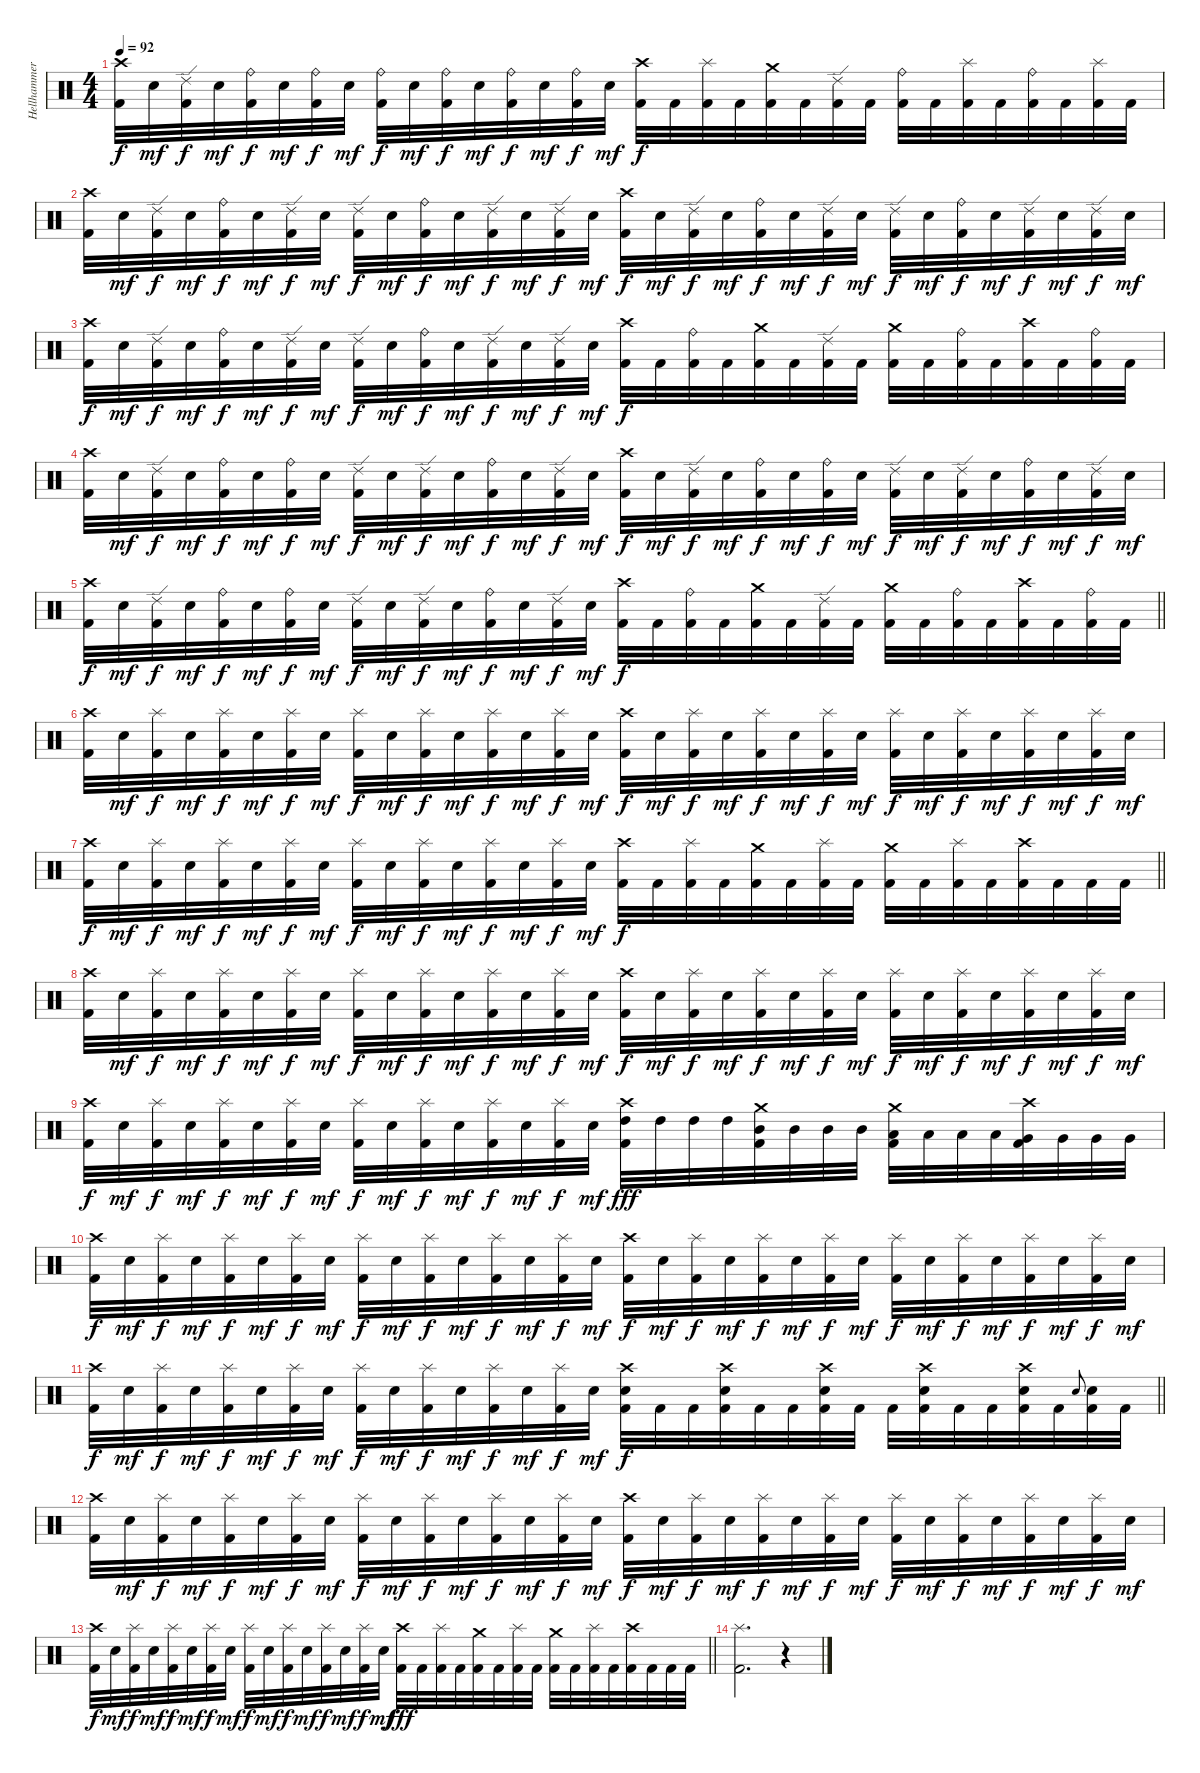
\track ("Hellhammer" "Hellhammer") {instrument percussion}
\staff {score}
\articulation defaults
\ts (4 4)
\tempo 92
\clef neutral
\ks c
("Crash high (hit)" "Kick (hit) 2").32{dy f} "Electric Snare (hit)".32{dy mf} ("Ride (edge) 2" "Kick (hit) 2").32{dy f} "Electric Snare (hit)".32{dy mf} ("Ride (bell)" "Kick (hit) 2").32{dy f} "Electric Snare (hit)".32{dy mf} ("Ride (bell)" "Kick (hit) 2").32{dy f} "Electric Snare (hit)".32{dy mf} ("Ride (bell)" "Kick (hit) 2").32{dy f} "Electric Snare (hit)".32{dy mf} ("Ride (bell)" "Kick (hit) 2").32{dy f} "Electric Snare (hit)".32{dy mf} ("Ride (bell)" "Kick (hit) 2").32{dy f} "Electric Snare (hit)".32{dy mf} ("Ride (bell)" "Kick (hit) 2").32{dy f} "Electric Snare (hit)".32{dy mf} ("Crash high (hit)" "Kick (hit) 2").32{dy f} "Kick (hit) 2".32 ("Splash (hit)" "Kick (hit) 2").32 "Kick (hit) 2".32 ("Crash medium (hit)" "Kick (hit) 2").32 "Kick (hit) 2".32 ("Ride (edge) 2" "Kick (hit) 2").32 "Kick (hit) 2".32 ("Ride (bell)" "Kick (hit) 2").32 "Kick (hit) 2".32 ("Splash (hit)" "Kick (hit) 2").32 "Kick (hit) 2".32 ("Ride (bell)" "Kick (hit) 2").32 "Kick (hit) 2".32 ("Splash (hit)" "Kick (hit) 2").32 "Kick (hit) 2".32 |
("Crash high (hit)" "Kick (hit) 2").32 "Electric Snare (hit)".32{dy mf} ("Ride (edge) 2" "Kick (hit) 2").32{dy f} "Electric Snare (hit)".32{dy mf} ("Ride (bell)" "Kick (hit) 2").32{dy f} "Electric Snare (hit)".32{dy mf} ("Ride (edge) 2" "Kick (hit) 2").32{dy f} "Electric Snare (hit)".32{dy mf} ("Ride (edge) 2" "Kick (hit) 2").32{dy f} "Electric Snare (hit)".32{dy mf} ("Ride (bell)" "Kick (hit) 2").32{dy f} "Electric Snare (hit)".32{dy mf} ("Ride (edge) 2" "Kick (hit) 2").32{dy f} "Electric Snare (hit)".32{dy mf} ("Ride (edge) 2" "Kick (hit) 2").32{dy f} "Electric Snare (hit)".32{dy mf} ("Crash high (hit)" "Kick (hit) 2").32{dy f} "Electric Snare (hit)".32{dy mf} ("Ride (edge) 2" "Kick (hit) 2").32{dy f} "Electric Snare (hit)".32{dy mf} ("Ride (bell)" "Kick (hit) 2").32{dy f} "Electric Snare (hit)".32{dy mf} ("Ride (edge) 2" "Kick (hit) 2").32{dy f} "Electric Snare (hit)".32{dy mf} ("Ride (edge) 2" "Kick (hit) 2").32{dy f} "Electric Snare (hit)".32{dy mf} ("Ride (bell)" "Kick (hit) 2").32{dy f} "Electric Snare (hit)".32{dy mf} ("Ride (edge) 2" "Kick (hit) 2").32{dy f} "Electric Snare (hit)".32{dy mf} ("Ride (edge) 2" "Kick (hit) 2").32{dy f} "Electric Snare (hit)".32{dy mf} |
("Crash high (hit)" "Kick (hit) 2").32{dy f} "Electric Snare (hit)".32{dy mf} ("Ride (edge) 2" "Kick (hit) 2").32{dy f} "Electric Snare (hit)".32{dy mf} ("Ride (bell)" "Kick (hit) 2").32{dy f} "Electric Snare (hit)".32{dy mf} ("Ride (edge) 2" "Kick (hit) 2").32{dy f} "Electric Snare (hit)".32{dy mf} ("Ride (edge) 2" "Kick (hit) 2").32{dy f} "Electric Snare (hit)".32{dy mf} ("Ride (bell)" "Kick (hit) 2").32{dy f} "Electric Snare (hit)".32{dy mf} ("Ride (edge) 2" "Kick (hit) 2").32{dy f} "Electric Snare (hit)".32{dy mf} ("Ride (edge) 2" "Kick (hit) 2").32{dy f} "Electric Snare (hit)".32{dy mf} ("Crash high (hit)" "Kick (hit) 2").32{dy f} "Kick (hit) 2".32 ("Ride (bell)" "Kick (hit) 2").32 "Kick (hit) 2".32 ("Crash medium (hit)" "Kick (hit) 2").32 "Kick (hit) 2".32 ("Ride (edge) 2" "Kick (hit) 2").32 "Kick (hit) 2".32 ("Crash medium (hit)" "Kick (hit) 2").32 "Kick (hit) 2".32 ("Ride (bell)" "Kick (hit) 2").32 "Kick (hit) 2".32 ("Crash high (hit)" "Kick (hit) 2").32 "Kick (hit) 2".32 ("Ride (bell)" "Kick (hit) 2").32 "Kick (hit) 2".32 |
("Crash high (hit)" "Kick (hit) 2").32 "Electric Snare (hit)".32{dy mf} ("Ride (edge) 2" "Kick (hit) 2").32{dy f} "Electric Snare (hit)".32{dy mf} ("Ride (bell)" "Kick (hit) 2").32{dy f} "Electric Snare (hit)".32{dy mf} ("Ride (bell)" "Kick (hit) 2").32{dy f} "Electric Snare (hit)".32{dy mf} ("Ride (edge) 2" "Kick (hit) 2").32{dy f} "Electric Snare (hit)".32{dy mf} ("Ride (edge) 2" "Kick (hit) 2").32{dy f} "Electric Snare (hit)".32{dy mf} ("Ride (bell)" "Kick (hit) 2").32{dy f} "Electric Snare (hit)".32{dy mf} ("Ride (edge) 2" "Kick (hit) 2").32{dy f} "Electric Snare (hit)".32{dy mf} ("Crash high (hit)" "Kick (hit) 2").32{dy f} "Electric Snare (hit)".32{dy mf} ("Ride (edge) 2" "Kick (hit) 2").32{dy f} "Electric Snare (hit)".32{dy mf} ("Ride (bell)" "Kick (hit) 2").32{dy f} "Electric Snare (hit)".32{dy mf} ("Ride (bell)" "Kick (hit) 2").32{dy f} "Electric Snare (hit)".32{dy mf} ("Ride (edge) 2" "Kick (hit) 2").32{dy f} "Electric Snare (hit)".32{dy mf} ("Ride (edge) 2" "Kick (hit) 2").32{dy f} "Electric Snare (hit)".32{dy mf} ("Ride (bell)" "Kick (hit) 2").32{dy f} "Electric Snare (hit)".32{dy mf} ("Ride (edge) 2" "Kick (hit) 2").32{dy f} "Electric Snare (hit)".32{dy mf} |
\barLineRight lightlight
("Crash high (hit)" "Kick (hit) 2").32{dy f} "Electric Snare (hit)".32{dy mf} ("Ride (edge) 2" "Kick (hit) 2").32{dy f} "Electric Snare (hit)".32{dy mf} ("Ride (bell)" "Kick (hit) 2").32{dy f} "Electric Snare (hit)".32{dy mf} ("Ride (bell)" "Kick (hit) 2").32{dy f} "Electric Snare (hit)".32{dy mf} ("Ride (edge) 2" "Kick (hit) 2").32{dy f} "Electric Snare (hit)".32{dy mf} ("Ride (edge) 2" "Kick (hit) 2").32{dy f} "Electric Snare (hit)".32{dy mf} ("Ride (bell)" "Kick (hit) 2").32{dy f} "Electric Snare (hit)".32{dy mf} ("Ride (edge) 2" "Kick (hit) 2").32{dy f} "Electric Snare (hit)".32{dy mf} ("Crash high (hit)" "Kick (hit) 2").32{dy f} "Kick (hit) 2".32 ("Ride (bell)" "Kick (hit) 2").32 "Kick (hit) 2".32 ("Crash medium (hit)" "Kick (hit) 2").32 "Kick (hit) 2".32 ("Ride (edge) 2" "Kick (hit) 2").32 "Kick (hit) 2".32 ("Crash medium (hit)" "Kick (hit) 2").32 "Kick (hit) 2".32 ("Ride (bell)" "Kick (hit) 2").32 "Kick (hit) 2".32 ("Crash high (hit)" "Kick (hit) 2").32 "Kick (hit) 2".32 ("Ride (bell)" "Kick (hit) 2").32 "Kick (hit) 2".32 |
("Crash high (hit)" "Kick (hit) 2").32 "Electric Snare (hit)".32{dy mf} ("Splash (hit)" "Kick (hit) 2").32{dy f} "Electric Snare (hit)".32{dy mf} ("Splash (hit)" "Kick (hit) 2").32{dy f} "Electric Snare (hit)".32{dy mf} ("Splash (hit)" "Kick (hit) 2").32{dy f} "Electric Snare (hit)".32{dy mf} ("Splash (hit)" "Kick (hit) 2").32{dy f} "Electric Snare (hit)".32{dy mf} ("Splash (hit)" "Kick (hit) 2").32{dy f} "Electric Snare (hit)".32{dy mf} ("Splash (hit)" "Kick (hit) 2").32{dy f} "Electric Snare (hit)".32{dy mf} ("Splash (hit)" "Kick (hit) 2").32{dy f} "Electric Snare (hit)".32{dy mf} ("Crash high (hit)" "Kick (hit) 2").32{dy f} "Electric Snare (hit)".32{dy mf} ("Splash (hit)" "Kick (hit) 2").32{dy f} "Electric Snare (hit)".32{dy mf} ("Splash (hit)" "Kick (hit) 2").32{dy f} "Electric Snare (hit)".32{dy mf} ("Splash (hit)" "Kick (hit) 2").32{dy f} "Electric Snare (hit)".32{dy mf} ("Splash (hit)" "Kick (hit) 2").32{dy f} "Electric Snare (hit)".32{dy mf} ("Splash (hit)" "Kick (hit) 2").32{dy f} "Electric Snare (hit)".32{dy mf} ("Splash (hit)" "Kick (hit) 2").32{dy f} "Electric Snare (hit)".32{dy mf} ("Splash (hit)" "Kick (hit) 2").32{dy f} "Electric Snare (hit)".32{dy mf} |
\barLineRight lightlight
("Crash high (hit)" "Kick (hit) 2").32{dy f} "Electric Snare (hit)".32{dy mf} ("Splash (hit)" "Kick (hit) 2").32{dy f} "Electric Snare (hit)".32{dy mf} ("Splash (hit)" "Kick (hit) 2").32{dy f} "Electric Snare (hit)".32{dy mf} ("Splash (hit)" "Kick (hit) 2").32{dy f} "Electric Snare (hit)".32{dy mf} ("Splash (hit)" "Kick (hit) 2").32{dy f} "Electric Snare (hit)".32{dy mf} ("Splash (hit)" "Kick (hit) 2").32{dy f} "Electric Snare (hit)".32{dy mf} ("Splash (hit)" "Kick (hit) 2").32{dy f} "Electric Snare (hit)".32{dy mf} ("Splash (hit)" "Kick (hit) 2").32{dy f} "Electric Snare (hit)".32{dy mf} ("Crash high (hit)" "Kick (hit) 2").32{dy f} "Kick (hit) 2".32 ("Splash (hit)" "Kick (hit) 2").32 "Kick (hit) 2".32 ("Crash medium (hit)" "Kick (hit) 2").32 "Kick (hit) 2".32 ("Splash (hit)" "Kick (hit) 2").32 "Kick (hit) 2".32 ("Crash medium (hit)" "Kick (hit) 2").32 "Kick (hit) 2".32 ("Splash (hit)" "Kick (hit) 2").32 "Kick (hit) 2".32 ("Crash high (hit)" "Kick (hit) 2").32 "Kick (hit) 2".32 "Kick (hit) 2".32 "Kick (hit) 2".32 |
("Crash high (hit)" "Kick (hit) 2").32 "Electric Snare (hit)".32{dy mf} ("Splash (hit)" "Kick (hit) 2").32{dy f} "Electric Snare (hit)".32{dy mf} ("Splash (hit)" "Kick (hit) 2").32{dy f} "Electric Snare (hit)".32{dy mf} ("Splash (hit)" "Kick (hit) 2").32{dy f} "Electric Snare (hit)".32{dy mf} ("Splash (hit)" "Kick (hit) 2").32{dy f} "Electric Snare (hit)".32{dy mf} ("Splash (hit)" "Kick (hit) 2").32{dy f} "Electric Snare (hit)".32{dy mf} ("Splash (hit)" "Kick (hit) 2").32{dy f} "Electric Snare (hit)".32{dy mf} ("Splash (hit)" "Kick (hit) 2").32{dy f} "Electric Snare (hit)".32{dy mf} ("Crash high (hit)" "Kick (hit) 2").32{dy f} "Electric Snare (hit)".32{dy mf} ("Splash (hit)" "Kick (hit) 2").32{dy f} "Electric Snare (hit)".32{dy mf} ("Splash (hit)" "Kick (hit) 2").32{dy f} "Electric Snare (hit)".32{dy mf} ("Splash (hit)" "Kick (hit) 2").32{dy f} "Electric Snare (hit)".32{dy mf} ("Splash (hit)" "Kick (hit) 2").32{dy f} "Electric Snare (hit)".32{dy mf} ("Splash (hit)" "Kick (hit) 2").32{dy f} "Electric Snare (hit)".32{dy mf} ("Splash (hit)" "Kick (hit) 2").32{dy f} "Electric Snare (hit)".32{dy mf} ("Splash (hit)" "Kick (hit) 2").32{dy f} "Electric Snare (hit)".32{dy mf} |
("Crash high (hit)" "Kick (hit) 2").32{dy f} "Electric Snare (hit)".32{dy mf} ("Splash (hit)" "Kick (hit) 2").32{dy f} "Electric Snare (hit)".32{dy mf} ("Splash (hit)" "Kick (hit) 2").32{dy f} "Electric Snare (hit)".32{dy mf} ("Splash (hit)" "Kick (hit) 2").32{dy f} "Electric Snare (hit)".32{dy mf} ("Splash (hit)" "Kick (hit) 2").32{dy f} "Electric Snare (hit)".32{dy mf} ("Splash (hit)" "Kick (hit) 2").32{dy f} "Electric Snare (hit)".32{dy mf} ("Splash (hit)" "Kick (hit) 2").32{dy f} "Electric Snare (hit)".32{dy mf} ("Splash (hit)" "Kick (hit) 2").32{dy f} "Electric Snare (hit)".32{dy mf} ("Crash high (hit)" "High Tom (hit)" "Kick (hit) 2").32{dy fff} "High Tom (hit)".32 "High Tom (hit)".32 "High Tom (hit)".32 ("Crash medium (hit)" "Mid Tom (hit)" "Kick (hit) 2").32 "Mid Tom (hit)".32 "Mid Tom (hit)".32 "Mid Tom (hit)".32 ("Crash medium (hit)" "Low Tom (hit)" "Kick (hit) 2").32 "Low Tom (hit)".32 "Low Tom (hit)".32 "Low Tom (hit)".32 ("Crash high (hit)" "Very Low Tom (hit)" "Kick (hit) 2").32 "Very Low Tom (hit)".32 "Very Low Tom (hit)".32 "Very Low Tom (hit)".32 |
("Crash high (hit)" "Kick (hit) 2").32{dy f} "Electric Snare (hit)".32{dy mf} ("Splash (hit)" "Kick (hit) 2").32{dy f} "Electric Snare (hit)".32{dy mf} ("Splash (hit)" "Kick (hit) 2").32{dy f} "Electric Snare (hit)".32{dy mf} ("Splash (hit)" "Kick (hit) 2").32{dy f} "Electric Snare (hit)".32{dy mf} ("Splash (hit)" "Kick (hit) 2").32{dy f} "Electric Snare (hit)".32{dy mf} ("Splash (hit)" "Kick (hit) 2").32{dy f} "Electric Snare (hit)".32{dy mf} ("Splash (hit)" "Kick (hit) 2").32{dy f} "Electric Snare (hit)".32{dy mf} ("Splash (hit)" "Kick (hit) 2").32{dy f} "Electric Snare (hit)".32{dy mf} ("Crash high (hit)" "Kick (hit) 2").32{dy f} "Electric Snare (hit)".32{dy mf} ("Splash (hit)" "Kick (hit) 2").32{dy f} "Electric Snare (hit)".32{dy mf} ("Splash (hit)" "Kick (hit) 2").32{dy f} "Electric Snare (hit)".32{dy mf} ("Splash (hit)" "Kick (hit) 2").32{dy f} "Electric Snare (hit)".32{dy mf} ("Splash (hit)" "Kick (hit) 2").32{dy f} "Electric Snare (hit)".32{dy mf} ("Splash (hit)" "Kick (hit) 2").32{dy f} "Electric Snare (hit)".32{dy mf} ("Splash (hit)" "Kick (hit) 2").32{dy f} "Electric Snare (hit)".32{dy mf} ("Splash (hit)" "Kick (hit) 2").32{dy f} "Electric Snare (hit)".32{dy mf} |
\barLineRight lightlight
("Crash high (hit)" "Kick (hit) 2").32{dy f} "Electric Snare (hit)".32{dy mf} ("Splash (hit)" "Kick (hit) 2").32{dy f} "Electric Snare (hit)".32{dy mf} ("Splash (hit)" "Kick (hit) 2").32{dy f} "Electric Snare (hit)".32{dy mf} ("Splash (hit)" "Kick (hit) 2").32{dy f} "Electric Snare (hit)".32{dy mf} ("Splash (hit)" "Kick (hit) 2").32{dy f} "Electric Snare (hit)".32{dy mf} ("Splash (hit)" "Kick (hit) 2").32{dy f} "Electric Snare (hit)".32{dy mf} ("Splash (hit)" "Kick (hit) 2").32{dy f} "Electric Snare (hit)".32{dy mf} ("Splash (hit)" "Kick (hit) 2").32{dy f} "Electric Snare (hit)".32{dy mf} ("Crash high (hit)" "Electric Snare (hit)" "Kick (hit) 2").32{dy f} "Kick (hit) 2".32 "Kick (hit) 2".32 ("Crash high (hit)" "Electric Snare (hit)" "Kick (hit) 2").32 "Kick (hit) 2".32 "Kick (hit) 2".32 ("Crash high (hit)" "Electric Snare (hit)" "Kick (hit) 2").32 "Kick (hit) 2".32 "Kick (hit) 2".32 ("Crash high (hit)" "Electric Snare (hit)" "Kick (hit) 2").32 "Kick (hit) 2".32 "Kick (hit) 2".32 ("Crash high (hit)" "Electric Snare (hit)" "Kick (hit) 2").32 "Kick (hit) 2".32 "Electric Snare (hit)".8{gr onbeat} ("Electric Snare (hit)" "Kick (hit) 2").32 "Kick (hit) 2".32 |
("Crash high (hit)" "Kick (hit) 2").32 "Electric Snare (hit)".32{dy mf} ("Splash (hit)" "Kick (hit) 2").32{dy f} "Electric Snare (hit)".32{dy mf} ("Splash (hit)" "Kick (hit) 2").32{dy f} "Electric Snare (hit)".32{dy mf} ("Splash (hit)" "Kick (hit) 2").32{dy f} "Electric Snare (hit)".32{dy mf} ("Splash (hit)" "Kick (hit) 2").32{dy f} "Electric Snare (hit)".32{dy mf} ("Splash (hit)" "Kick (hit) 2").32{dy f} "Electric Snare (hit)".32{dy mf} ("Splash (hit)" "Kick (hit) 2").32{dy f} "Electric Snare (hit)".32{dy mf} ("Splash (hit)" "Kick (hit) 2").32{dy f} "Electric Snare (hit)".32{dy mf} ("Crash high (hit)" "Kick (hit) 2").32{dy f} "Electric Snare (hit)".32{dy mf} ("Splash (hit)" "Kick (hit) 2").32{dy f} "Electric Snare (hit)".32{dy mf} ("Splash (hit)" "Kick (hit) 2").32{dy f} "Electric Snare (hit)".32{dy mf} ("Splash (hit)" "Kick (hit) 2").32{dy f} "Electric Snare (hit)".32{dy mf} ("Splash (hit)" "Kick (hit) 2").32{dy f} "Electric Snare (hit)".32{dy mf} ("Splash (hit)" "Kick (hit) 2").32{dy f} "Electric Snare (hit)".32{dy mf} ("Splash (hit)" "Kick (hit) 2").32{dy f} "Electric Snare (hit)".32{dy mf} ("Splash (hit)" "Kick (hit) 2").32{dy f} "Electric Snare (hit)".32{dy mf} |
\barLineRight lightlight
("Crash high (hit)" "Kick (hit) 2").32{dy f} "Electric Snare (hit)".32{dy mf} ("Splash (hit)" "Kick (hit) 2").32{dy f} "Electric Snare (hit)".32{dy mf} ("Splash (hit)" "Kick (hit) 2").32{dy f} "Electric Snare (hit)".32{dy mf} ("Splash (hit)" "Kick (hit) 2").32{dy f} "Electric Snare (hit)".32{dy mf} ("Splash (hit)" "Kick (hit) 2").32{dy f} "Electric Snare (hit)".32{dy mf} ("Splash (hit)" "Kick (hit) 2").32{dy f} "Electric Snare (hit)".32{dy mf} ("Splash (hit)" "Kick (hit) 2").32{dy f} "Electric Snare (hit)".32{dy mf} ("Splash (hit)" "Kick (hit) 2").32{dy f} "Electric Snare (hit)".32{dy mf} ("Crash high (hit)" "Kick (hit) 2").32{dy fff} "Kick (hit) 2".32 ("Splash (hit)" "Kick (hit) 2").32 "Kick (hit) 2".32 ("Crash medium (hit)" "Kick (hit) 2").32 "Kick (hit) 2".32 ("Splash (hit)" "Kick (hit) 2").32 "Kick (hit) 2".32 ("Crash medium (hit)" "Kick (hit) 2").32 "Kick (hit) 2".32 ("Splash (hit)" "Kick (hit) 2").32 "Kick (hit) 2".32 ("Crash high (hit)" "Kick (hit) 2").32 "Kick (hit) 2".32 "Kick (hit) 2".32 "Kick (hit) 2".32 |
("Splash (hit)" "Kick (hit) 2").2{d} r.4
